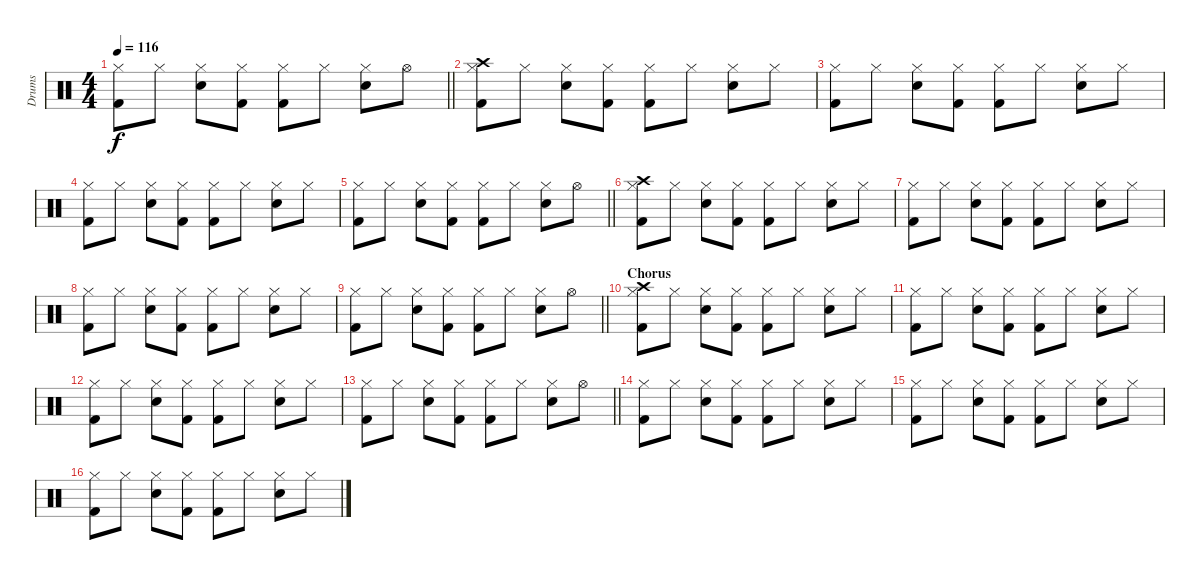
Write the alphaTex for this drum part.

\track ("Drums" "Drums") {instrument percussion}
\staff {score}
\articulation defaults
\ts (4 4)
\tempo 116
\clef neutral
\barLineRight lightlight
\ks c
("Kick (hit) 2" "Hi-Hat (closed)").8{dy f} "Hi-Hat (closed)".8 ("Electric Snare (hit)" "Hi-Hat (closed)").8 ("Kick (hit) 2" "Hi-Hat (closed)").8 ("Kick (hit) 2" "Hi-Hat (closed)").8 "Hi-Hat (closed)".8 ("Electric Snare (hit)" "Hi-Hat (closed)").8 "Hi-Hat (open)".8 |
("Crash high (hit)" "Kick (hit) 2" "Hi-Hat (closed)").8 "Hi-Hat (closed)".8 ("Electric Snare (hit)" "Hi-Hat (closed)").8 ("Kick (hit) 2" "Hi-Hat (closed)").8 ("Kick (hit) 2" "Hi-Hat (closed)").8 "Hi-Hat (closed)".8 ("Electric Snare (hit)" "Hi-Hat (closed)").8 "Hi-Hat (closed)".8 |
("Kick (hit) 2" "Hi-Hat (closed)").8 "Hi-Hat (closed)".8 ("Electric Snare (hit)" "Hi-Hat (closed)").8 ("Kick (hit) 2" "Hi-Hat (closed)").8 ("Kick (hit) 2" "Hi-Hat (closed)").8 "Hi-Hat (closed)".8 ("Electric Snare (hit)" "Hi-Hat (closed)").8 "Hi-Hat (closed)".8 |
("Kick (hit) 2" "Hi-Hat (closed)").8 "Hi-Hat (closed)".8 ("Electric Snare (hit)" "Hi-Hat (closed)").8 ("Kick (hit) 2" "Hi-Hat (closed)").8 ("Kick (hit) 2" "Hi-Hat (closed)").8 "Hi-Hat (closed)".8 ("Electric Snare (hit)" "Hi-Hat (closed)").8 "Hi-Hat (closed)".8 |
\barLineRight lightlight
("Kick (hit) 2" "Hi-Hat (closed)").8 "Hi-Hat (closed)".8 ("Electric Snare (hit)" "Hi-Hat (closed)").8 ("Kick (hit) 2" "Hi-Hat (closed)").8 ("Kick (hit) 2" "Hi-Hat (closed)").8 "Hi-Hat (closed)".8 ("Electric Snare (hit)" "Hi-Hat (closed)").8 "Hi-Hat (open)".8 |
("Crash high (hit)" "Kick (hit) 2" "Hi-Hat (closed)").8 "Hi-Hat (closed)".8 ("Electric Snare (hit)" "Hi-Hat (closed)").8 ("Kick (hit) 2" "Hi-Hat (closed)").8 ("Kick (hit) 2" "Hi-Hat (closed)").8 "Hi-Hat (closed)".8 ("Electric Snare (hit)" "Hi-Hat (closed)").8 "Hi-Hat (closed)".8 |
("Kick (hit) 2" "Hi-Hat (closed)").8 "Hi-Hat (closed)".8 ("Electric Snare (hit)" "Hi-Hat (closed)").8 ("Kick (hit) 2" "Hi-Hat (closed)").8 ("Kick (hit) 2" "Hi-Hat (closed)").8 "Hi-Hat (closed)".8 ("Electric Snare (hit)" "Hi-Hat (closed)").8 "Hi-Hat (closed)".8 |
("Kick (hit) 2" "Hi-Hat (closed)").8 "Hi-Hat (closed)".8 ("Electric Snare (hit)" "Hi-Hat (closed)").8 ("Kick (hit) 2" "Hi-Hat (closed)").8 ("Kick (hit) 2" "Hi-Hat (closed)").8 "Hi-Hat (closed)".8 ("Electric Snare (hit)" "Hi-Hat (closed)").8 "Hi-Hat (closed)".8 |
\barLineRight lightlight
("Kick (hit) 2" "Hi-Hat (closed)").8 "Hi-Hat (closed)".8 ("Electric Snare (hit)" "Hi-Hat (closed)").8 ("Kick (hit) 2" "Hi-Hat (closed)").8 ("Kick (hit) 2" "Hi-Hat (closed)").8 "Hi-Hat (closed)".8 ("Electric Snare (hit)" "Hi-Hat (closed)").8 "Hi-Hat (open)".8 |
\section ("" "Chorus")
("Crash high (hit)" "Kick (hit) 2" "Hi-Hat (closed)").8 "Hi-Hat (closed)".8 ("Electric Snare (hit)" "Hi-Hat (closed)").8 ("Kick (hit) 2" "Hi-Hat (closed)").8 ("Kick (hit) 2" "Hi-Hat (closed)").8 "Hi-Hat (closed)".8 ("Electric Snare (hit)" "Hi-Hat (closed)").8 "Hi-Hat (closed)".8 |
("Kick (hit) 2" "Hi-Hat (closed)").8 "Hi-Hat (closed)".8 ("Electric Snare (hit)" "Hi-Hat (closed)").8 ("Kick (hit) 2" "Hi-Hat (closed)").8 ("Kick (hit) 2" "Hi-Hat (closed)").8 "Hi-Hat (closed)".8 ("Electric Snare (hit)" "Hi-Hat (closed)").8 "Hi-Hat (closed)".8 |
("Kick (hit) 2" "Hi-Hat (closed)").8 "Hi-Hat (closed)".8 ("Electric Snare (hit)" "Hi-Hat (closed)").8 ("Kick (hit) 2" "Hi-Hat (closed)").8 ("Kick (hit) 2" "Hi-Hat (closed)").8 "Hi-Hat (closed)".8 ("Electric Snare (hit)" "Hi-Hat (closed)").8 "Hi-Hat (closed)".8 |
\barLineRight lightlight
("Kick (hit) 2" "Hi-Hat (closed)").8 "Hi-Hat (closed)".8 ("Electric Snare (hit)" "Hi-Hat (closed)").8 ("Kick (hit) 2" "Hi-Hat (closed)").8 ("Kick (hit) 2" "Hi-Hat (closed)").8 "Hi-Hat (closed)".8 ("Electric Snare (hit)" "Hi-Hat (closed)").8 "Hi-Hat (open)".8 |
("Kick (hit) 2" "Hi-Hat (closed)").8 "Hi-Hat (closed)".8 ("Electric Snare (hit)" "Hi-Hat (closed)").8 ("Kick (hit) 2" "Hi-Hat (closed)").8 ("Kick (hit) 2" "Hi-Hat (closed)").8 "Hi-Hat (closed)".8 ("Electric Snare (hit)" "Hi-Hat (closed)").8 "Hi-Hat (closed)".8 |
("Kick (hit) 2" "Hi-Hat (closed)").8 "Hi-Hat (closed)".8 ("Electric Snare (hit)" "Hi-Hat (closed)").8 ("Kick (hit) 2" "Hi-Hat (closed)").8 ("Kick (hit) 2" "Hi-Hat (closed)").8 "Hi-Hat (closed)".8 ("Electric Snare (hit)" "Hi-Hat (closed)").8 "Hi-Hat (closed)".8 |
("Kick (hit) 2" "Hi-Hat (closed)").8 "Hi-Hat (closed)".8 ("Electric Snare (hit)" "Hi-Hat (closed)").8 ("Kick (hit) 2" "Hi-Hat (closed)").8 ("Kick (hit) 2" "Hi-Hat (closed)").8 "Hi-Hat (closed)".8 ("Electric Snare (hit)" "Hi-Hat (closed)").8 "Hi-Hat (closed)".8
